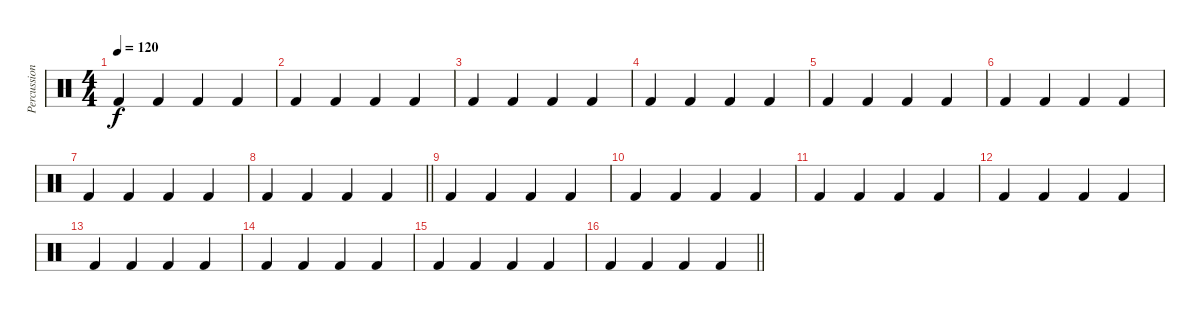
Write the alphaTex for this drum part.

\track ("Percussion" "Percussion") {instrument percussion}
\staff {score}
\articulation defaults
\ts (4 4)
\tempo 120
\clef neutral
\ks c "Kick (hit) 2".4{dy f} "Kick (hit) 2".4 "Kick (hit) 2".4 "Kick (hit) 2".4
|
"Kick (hit) 2".4 "Kick (hit) 2".4 "Kick (hit) 2".4 "Kick (hit) 2".4 |
"Kick (hit) 2".4 "Kick (hit) 2".4 "Kick (hit) 2".4 "Kick (hit) 2".4 |
"Kick (hit) 2".4 "Kick (hit) 2".4 "Kick (hit) 2".4 "Kick (hit) 2".4 |
"Kick (hit) 2".4 "Kick (hit) 2".4 "Kick (hit) 2".4 "Kick (hit) 2".4 |
"Kick (hit) 2".4 "Kick (hit) 2".4 "Kick (hit) 2".4 "Kick (hit) 2".4 |
"Kick (hit) 2".4 "Kick (hit) 2".4 "Kick (hit) 2".4 "Kick (hit) 2".4 |
\barLineRight lightlight "Kick (hit) 2".4 "Kick (hit) 2".4 "Kick (hit) 2".4 "Kick (hit) 2".4
|
\section ("" "")
"Kick (hit) 2".4 "Kick (hit) 2".4 "Kick (hit) 2".4 "Kick (hit) 2".4 |
"Kick (hit) 2".4 "Kick (hit) 2".4 "Kick (hit) 2".4 "Kick (hit) 2".4 |
"Kick (hit) 2".4 "Kick (hit) 2".4 "Kick (hit) 2".4 "Kick (hit) 2".4 |
"Kick (hit) 2".4 "Kick (hit) 2".4 "Kick (hit) 2".4 "Kick (hit) 2".4 |
"Kick (hit) 2".4 "Kick (hit) 2".4 "Kick (hit) 2".4 "Kick (hit) 2".4 |
"Kick (hit) 2".4 "Kick (hit) 2".4 "Kick (hit) 2".4 "Kick (hit) 2".4 |
"Kick (hit) 2".4 "Kick (hit) 2".4 "Kick (hit) 2".4 "Kick (hit) 2".4 |
\barLineRight lightlight "Kick (hit) 2".4 "Kick (hit) 2".4 "Kick (hit) 2".4 "Kick (hit) 2".4
